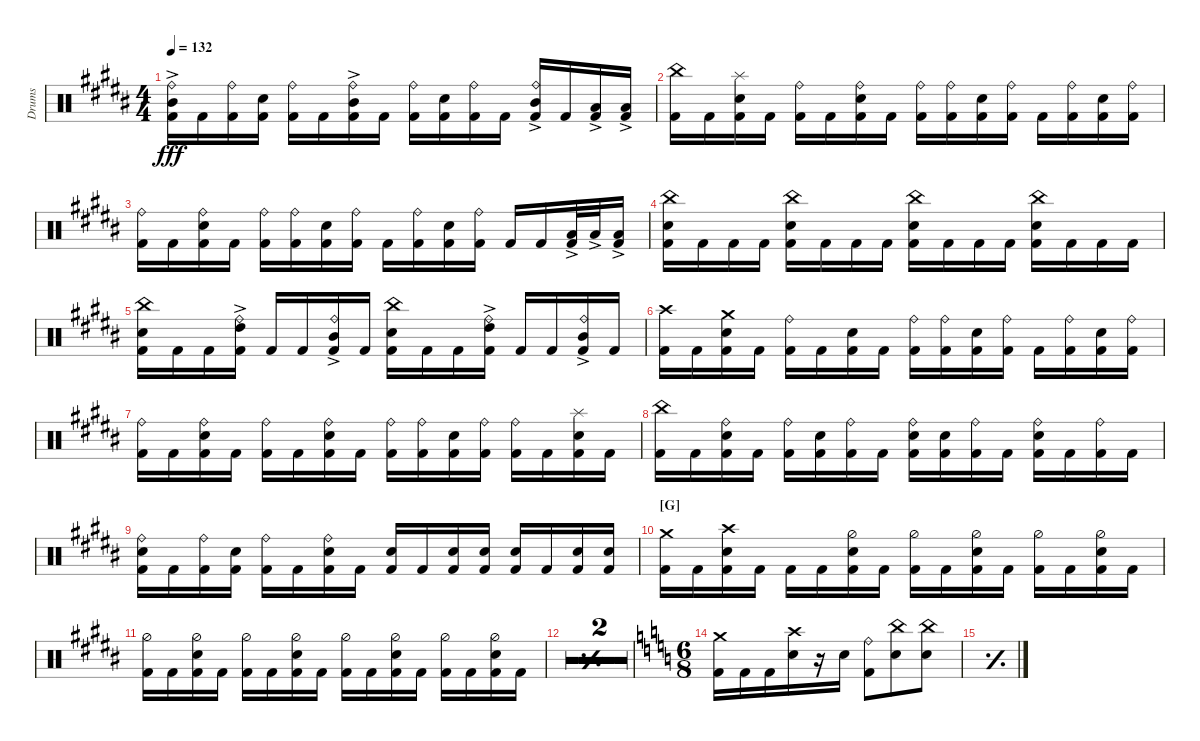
\defaultSystemsLayout 4
\bracketExtendMode groupsimilarinstruments
\otherSystemsTrackNameOrientation horizontal
\track ("Drumkit" "Drums") {multiBarRest instrument percussion}
\staff {score}
\articulation defaults
\ts (4 4)
\tempo 132
\clef neutral
\ks b
("Kick (hit) 2"{acc forcenatural} "Ride (bell)"{acc forcenatural} "Mid Tom (hit)"{ac acc forcenatural}).16{dy fff} "Kick (hit) 2"{acc forcenatural}.16 ("Kick (hit) 2"{acc forcenatural} "Ride (bell)"{acc forcenatural}).16 ("Kick (hit) 2"{acc forcenatural} "Snare (hit) 2"{acc forcenatural}).16 ("Kick (hit) 2"{acc forcenatural} "Ride (bell)"{acc forcenatural}).16 "Kick (hit) 2"{acc forcenatural}.16 ("Kick (hit) 2"{acc forcenatural} "Ride (bell)"{acc forcenatural} "Mid Tom (hit)"{ac acc forcenatural}).16 "Kick (hit) 2"{acc forcenatural}.16 ("Kick (hit) 2"{acc forcenatural} "Ride (bell)"{acc forcenatural}).16 ("Kick (hit) 2"{acc forcenatural} "Snare (hit) 2"{acc forcenatural}).16 ("Kick (hit) 2"{acc forcenatural} "Ride (bell)"{acc forcenatural}).16 "Kick (hit) 2"{acc forcenatural}.16 ("Kick (hit) 2"{acc forcenatural} "Mid Tom (hit)"{ac acc forcenatural} "Ride (bell)"{acc forcenatural}).16 "Kick (hit) 2"{acc forcenatural}.16 ("Kick (hit) 2"{acc forcenatural} "Low Tom (hit)"{ac acc forcenatural}).16 ("Kick (hit) 2"{acc forcenatural} "Low Tom (hit)"{ac acc forcenatural}).16 |
("Kick (hit) 2"{acc forcenatural} "China (hit)"{acc forcenatural}).16 "Kick (hit) 2"{acc forcenatural}.16 ("Kick (hit) 2"{acc forcenatural} "Snare (hit) 2"{acc forcenatural} "Splash (hit)"{acc forcenatural}).16 "Kick (hit) 2"{acc forcenatural}.16 ("Kick (hit) 2"{acc forcenatural} "Ride (bell)"{acc forcenatural}).16 "Kick (hit) 2"{acc forcenatural}.16 ("Kick (hit) 2"{acc forcenatural} "Snare (hit) 2"{acc forcenatural} "Ride (bell)"{acc forcenatural}).16 "Kick (hit) 2"{acc forcenatural}.16 ("Kick (hit) 2"{acc forcenatural} "Ride (bell)"{acc forcenatural}).16 ("Kick (hit) 2"{acc forcenatural} "Ride (bell)"{acc forcenatural}).16 ("Kick (hit) 2"{acc forcenatural} "Snare (hit) 2"{acc forcenatural}).16 ("Kick (hit) 2"{acc forcenatural} "Ride (bell)"{acc forcenatural}).16 "Kick (hit) 2"{acc forcenatural}.16 ("Kick (hit) 2"{acc forcenatural} "Ride (bell)"{acc forcenatural}).16 ("Kick (hit) 2"{acc forcenatural} "Snare (hit) 2"{acc forcenatural}).16 ("Kick (hit) 2"{acc forcenatural} "Ride (bell)"{acc forcenatural}).16 |
("Kick (hit) 2"{acc forcenatural} "Ride (bell)"{acc forcenatural}).16 "Kick (hit) 2"{acc forcenatural}.16 ("Kick (hit) 2"{acc forcenatural} "Snare (hit) 2"{acc forcenatural} "Ride (bell)"{acc forcenatural}).16 "Kick (hit) 2"{acc forcenatural}.16 ("Kick (hit) 2"{acc forcenatural} "Ride (bell)"{acc forcenatural}).16 ("Kick (hit) 2"{acc forcenatural} "Ride (bell)"{acc forcenatural}).16 ("Kick (hit) 2"{acc forcenatural} "Snare (hit) 2"{acc forcenatural}).16 ("Kick (hit) 2"{acc forcenatural} "Ride (bell)"{acc forcenatural}).16 "Kick (hit) 2"{acc forcenatural}.16 ("Kick (hit) 2"{acc forcenatural} "Ride (bell)"{acc forcenatural}).16 ("Kick (hit) 2"{acc forcenatural} "Snare (hit) 2"{acc forcenatural}).16 ("Kick (hit) 2"{acc forcenatural} "Ride (bell)"{acc forcenatural}).16 "Kick (hit) 2"{acc forcenatural}.16 "Kick (hit) 2"{acc forcenatural}.16 ("Kick (hit) 2"{acc forcenatural} "Low Tom (hit)"{ac acc forcenatural}).32 "Low Tom (hit)"{ac acc forcenatural}.32 ("Kick (hit) 2"{acc forcenatural} "Low Tom (hit)"{ac acc forcenatural}).16 |
("China (hit)"{acc forcenatural} "Snare (hit) 2"{acc forcenatural} "Kick (hit) 2"{acc forcenatural}).16 "Kick (hit) 2"{acc forcenatural}.16 "Kick (hit) 2"{acc forcenatural}.16 "Kick (hit) 2"{acc forcenatural}.16 ("China (hit)"{acc forcenatural} "Snare (hit) 2"{acc forcenatural} "Kick (hit) 2"{acc forcenatural}).16 "Kick (hit) 2"{acc forcenatural}.16 "Kick (hit) 2"{acc forcenatural}.16 "Kick (hit) 2"{acc forcenatural}.16 ("China (hit)"{acc forcenatural} "Snare (hit) 2"{acc forcenatural} "Kick (hit) 2"{acc forcenatural}).16 "Kick (hit) 2"{acc forcenatural}.16 "Kick (hit) 2"{acc forcenatural}.16 "Kick (hit) 2"{acc forcenatural}.16 ("China (hit)"{acc forcenatural} "Snare (hit) 2"{acc forcenatural} "Kick (hit) 2"{acc forcenatural}).16 "Kick (hit) 2"{acc forcenatural}.16 "Kick (hit) 2"{acc forcenatural}.16 "Kick (hit) 2"{acc forcenatural}.16 |
("Kick (hit) 2"{acc forcenatural} "China (hit)"{acc forcenatural} "Snare (hit) 2"{acc forcenatural}).16 "Kick (hit) 2"{acc forcenatural}.16 "Kick (hit) 2"{acc forcenatural}.16 ("Kick (hit) 2"{acc forcenatural} "Ride (bell)"{acc forcenatural} "High Tom (hit)"{ac acc forcenatural}).16 "Kick (hit) 2"{acc forcenatural}.16 "Kick (hit) 2"{acc forcenatural}.16 ("Kick (hit) 2"{acc forcenatural} "Ride (bell)"{acc forcenatural} "Mid Tom (hit)"{ac acc forcenatural}).16 "Kick (hit) 2"{acc forcenatural}.16 ("Kick (hit) 2"{acc forcenatural} "China (hit)"{acc forcenatural} "Snare (hit) 2"{acc forcenatural}).16 "Kick (hit) 2"{acc forcenatural}.16 "Kick (hit) 2"{acc forcenatural}.16 ("Kick (hit) 2"{acc forcenatural} "Ride (bell)"{acc forcenatural} "High Tom (hit)"{ac acc forcenatural}).16 "Kick (hit) 2"{acc forcenatural}.16 "Kick (hit) 2"{acc forcenatural}.16 ("Kick (hit) 2"{acc forcenatural} "Ride (bell)"{acc forcenatural} "Mid Tom (hit)"{ac acc forcenatural}).16 "Kick (hit) 2"{acc forcenatural}.16 |
("Kick (hit) 2"{acc forcenatural} "Crash high (hit)"{acc forcenatural}).16 "Kick (hit) 2"{acc forcenatural}.16 ("Kick (hit) 2"{acc forcenatural} "Snare (hit) 2"{acc forcenatural} "Crash medium (hit)"{acc forcenatural}).16 "Kick (hit) 2"{acc forcenatural}.16 ("Kick (hit) 2"{acc forcenatural} "Ride (bell)"{acc forcenatural}).16 "Kick (hit) 2"{acc forcenatural}.16 ("Kick (hit) 2"{acc forcenatural} "Snare (hit) 2"{acc forcenatural}).16 "Kick (hit) 2"{acc forcenatural}.16 ("Kick (hit) 2"{acc forcenatural} "Ride (bell)"{acc forcenatural}).16 ("Kick (hit) 2"{acc forcenatural} "Ride (bell)"{acc forcenatural}).16 ("Kick (hit) 2"{acc forcenatural} "Snare (hit) 2"{acc forcenatural}).16 ("Kick (hit) 2"{acc forcenatural} "Ride (bell)"{acc forcenatural}).16 "Kick (hit) 2"{acc forcenatural}.16 ("Kick (hit) 2"{acc forcenatural} "Ride (bell)"{acc forcenatural}).16 ("Kick (hit) 2"{acc forcenatural} "Snare (hit) 2"{acc forcenatural}).16 ("Kick (hit) 2"{acc forcenatural} "Ride (bell)"{acc forcenatural}).16 |
("Kick (hit) 2"{acc forcenatural} "Ride (bell)"{acc forcenatural}).16 "Kick (hit) 2"{acc forcenatural}.16 ("Kick (hit) 2"{acc forcenatural} "Snare (hit) 2"{acc forcenatural} "Ride (bell)"{acc forcenatural}).16 "Kick (hit) 2"{acc forcenatural}.16 ("Kick (hit) 2"{acc forcenatural} "Ride (bell)"{acc forcenatural}).16 "Kick (hit) 2"{acc forcenatural}.16 ("Kick (hit) 2"{acc forcenatural} "Snare (hit) 2"{acc forcenatural} "Ride (bell)"{acc forcenatural}).16 "Kick (hit) 2"{acc forcenatural}.16 ("Kick (hit) 2"{acc forcenatural} "Ride (bell)"{acc forcenatural}).16 ("Kick (hit) 2"{acc forcenatural} "Ride (bell)"{acc forcenatural}).16 ("Kick (hit) 2"{acc forcenatural} "Snare (hit) 2"{acc forcenatural}).16 ("Kick (hit) 2"{acc forcenatural} "Ride (bell)"{acc forcenatural}).16 ("Kick (hit) 2"{acc forcenatural} "Ride (bell)"{acc forcenatural}).16 "Kick (hit) 2"{acc forcenatural}.16 ("Kick (hit) 2"{acc forcenatural} "Snare (hit) 2"{acc forcenatural} "Splash (hit)"{acc forcenatural}).16 "Kick (hit) 2"{acc forcenatural}.16 |
("Kick (hit) 2"{acc forcenatural} "China (hit)"{acc forcenatural}).16 "Kick (hit) 2"{acc forcenatural}.16 ("Kick (hit) 2"{acc forcenatural} "Snare (hit) 2"{acc forcenatural} "Ride (bell)"{acc forcenatural}).16 "Kick (hit) 2"{acc forcenatural}.16 ("Kick (hit) 2"{acc forcenatural} "Ride (bell)"{acc forcenatural}).16 ("Kick (hit) 2"{acc forcenatural} "Snare (hit) 2"{acc forcenatural}).16 ("Kick (hit) 2"{acc forcenatural} "Ride (bell)"{acc forcenatural}).16 "Kick (hit) 2"{acc forcenatural}.16 ("Kick (hit) 2"{acc forcenatural} "Snare (hit) 2"{acc forcenatural} "Ride (bell)"{acc forcenatural}).16 ("Kick (hit) 2"{acc forcenatural} "Snare (hit) 2"{acc forcenatural}).16 ("Kick (hit) 2"{acc forcenatural} "Ride (bell)"{acc forcenatural}).16 "Kick (hit) 2"{acc forcenatural}.16 ("Kick (hit) 2"{acc forcenatural} "Snare (hit) 2"{acc forcenatural} "Ride (bell)"{acc forcenatural}).16 "Kick (hit) 2"{acc forcenatural}.16 ("Kick (hit) 2"{acc forcenatural} "Ride (bell)"{acc forcenatural}).16 "Kick (hit) 2"{acc forcenatural}.16 |
("Kick (hit) 2"{acc forcenatural} "Snare (hit) 2"{acc forcenatural} "Ride (bell)"{acc forcenatural}).16 "Kick (hit) 2"{acc forcenatural}.16 ("Kick (hit) 2"{acc forcenatural} "Ride (bell)"{acc forcenatural}).16 ("Kick (hit) 2"{acc forcenatural} "Snare (hit) 2"{acc forcenatural}).16 ("Kick (hit) 2"{acc forcenatural} "Ride (bell)"{acc forcenatural}).16 "Kick (hit) 2"{acc forcenatural}.16 ("Kick (hit) 2"{acc forcenatural} "Snare (hit) 2"{acc forcenatural} "Ride (bell)"{acc forcenatural}).16 "Kick (hit) 2"{acc forcenatural}.16 ("Kick (hit) 2"{acc forcenatural} "Snare (hit) 2"{acc forcenatural}).16 "Kick (hit) 2"{acc forcenatural}.16 ("Kick (hit) 2"{acc forcenatural} "Snare (hit) 2"{acc forcenatural}).16 ("Kick (hit) 2"{acc forcenatural} "Snare (hit) 2"{acc forcenatural}).16 ("Kick (hit) 2"{acc forcenatural} "Snare (hit) 2"{acc forcenatural}).16 "Kick (hit) 2"{acc forcenatural}.16 ("Kick (hit) 2"{acc forcenatural} "Snare (hit) 2"{acc forcenatural}).16 ("Kick (hit) 2"{acc forcenatural} "Snare (hit) 2"{acc forcenatural}).16 |
\section ("G" "")
("Kick (hit) 2"{acc forcenatural} "Crash medium (hit)"{acc forcenatural}).16 "Kick (hit) 2"{acc forcenatural}.16 ("Kick (hit) 2"{acc forcenatural} "Crash high (hit)"{acc forcenatural} "Snare (hit) 2"{acc forcenatural}).16 "Kick (hit) 2"{acc forcenatural}.16 "Kick (hit) 2"{acc forcenatural}.16 "Kick (hit) 2"{acc forcenatural}.16 ("Kick (hit) 2"{acc forcenatural} "Hi-Hat (half)"{acc forcenatural} "Snare (hit) 2"{acc forcenatural}).16 "Kick (hit) 2"{acc forcenatural}.16 ("Kick (hit) 2"{acc forcenatural} "Hi-Hat (half)"{acc forcenatural}).16 "Kick (hit) 2"{acc forcenatural}.16 ("Kick (hit) 2"{acc forcenatural} "Hi-Hat (half)"{acc forcenatural} "Snare (hit) 2"{acc forcenatural}).16 "Kick (hit) 2"{acc forcenatural}.16 ("Kick (hit) 2"{acc forcenatural} "Hi-Hat (half)"{acc forcenatural}).16 "Kick (hit) 2"{acc forcenatural}.16 ("Kick (hit) 2"{acc forcenatural} "Hi-Hat (half)"{acc forcenatural} "Snare (hit) 2"{acc forcenatural}).16 "Kick (hit) 2"{acc forcenatural}.16 |
("Kick (hit) 2"{acc forcenatural} "Hi-Hat (half)"{acc forcenatural}).16 "Kick (hit) 2"{acc forcenatural}.16 ("Kick (hit) 2"{acc forcenatural} "Hi-Hat (half)"{acc forcenatural} "Snare (hit) 2"{acc forcenatural}).16 "Kick (hit) 2"{acc forcenatural}.16 ("Kick (hit) 2"{acc forcenatural} "Hi-Hat (half)"{acc forcenatural}).16 "Kick (hit) 2"{acc forcenatural}.16 ("Kick (hit) 2"{acc forcenatural} "Hi-Hat (half)"{acc forcenatural} "Snare (hit) 2"{acc forcenatural}).16 "Kick (hit) 2"{acc forcenatural}.16 ("Kick (hit) 2"{acc forcenatural} "Hi-Hat (half)"{acc forcenatural}).16 "Kick (hit) 2"{acc forcenatural}.16 ("Kick (hit) 2"{acc forcenatural} "Hi-Hat (half)"{acc forcenatural} "Snare (hit) 2"{acc forcenatural}).16 "Kick (hit) 2"{acc forcenatural}.16 ("Kick (hit) 2"{acc forcenatural} "Hi-Hat (half)"{acc forcenatural}).16 "Kick (hit) 2"{acc forcenatural}.16 ("Kick (hit) 2"{acc forcenatural} "Hi-Hat (half)"{acc forcenatural} "Snare (hit) 2"{acc forcenatural}).16 "Kick (hit) 2"{acc forcenatural}.16 |
\simile simple
|
\barLineRight lightlight
|
\ts (6 8)
\beaming (8 3 3)
\simile none
\ks c
("Kick (hit) 2" "Crash medium (hit)").16 "Kick (hit) 2".16 "Kick (hit) 2".16 ("Snare (hit) 2" "Crash high (hit)").16 r.16 "Snare (hit) 2".16 ("Kick (hit) 2" "Ride (bell)").8 ("Snare (hit) 2" "China (hit)").8 ("Snare (hit) 2" "China (hit)").8 |
\simile simple
